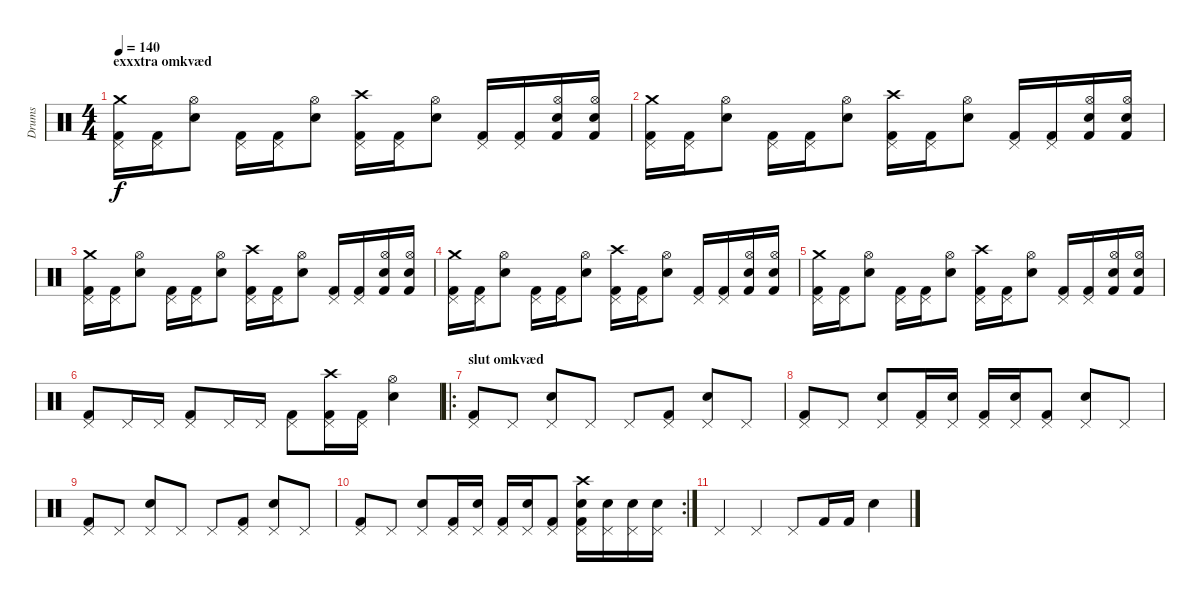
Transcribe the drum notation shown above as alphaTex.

\track ("Drums" "Drums") {instrument percussion}
\staff {score}
\articulation defaults
\ts (4 4)
\section ("" "exxxtra omkvæd")
\tempo 140
\clef neutral
\ks c
("Crash medium (hit)" "Pedal Hi-Hat (hit)" "Kick (hit) 2").16{dy f} ("Pedal Hi-Hat (hit)" "Kick (hit) 2").16 ("Hi-Hat (open)" "Snare (hit) 2").8 ("Pedal Hi-Hat (hit)" "Kick (hit) 2").16 ("Pedal Hi-Hat (hit)" "Kick (hit) 2").16 ("Hi-Hat (open)" "Snare (hit) 2").8 ("Crash high (hit)" "Pedal Hi-Hat (hit)" "Kick (hit) 2").16 ("Pedal Hi-Hat (hit)" "Kick (hit) 2").16 ("Hi-Hat (open)" "Snare (hit) 2").8 ("Pedal Hi-Hat (hit)" "Kick (hit) 2").16 ("Pedal Hi-Hat (hit)" "Kick (hit) 2").16 ("Hi-Hat (open)" "Snare (hit) 2" "Kick (hit) 2").16 ("Hi-Hat (open)" "Snare (hit) 2" "Kick (hit) 2").16 |
("Crash medium (hit)" "Pedal Hi-Hat (hit)" "Kick (hit) 2").16 ("Pedal Hi-Hat (hit)" "Kick (hit) 2").16 ("Hi-Hat (open)" "Snare (hit) 2").8 ("Pedal Hi-Hat (hit)" "Kick (hit) 2").16 ("Pedal Hi-Hat (hit)" "Kick (hit) 2").16 ("Hi-Hat (open)" "Snare (hit) 2").8 ("Crash high (hit)" "Pedal Hi-Hat (hit)" "Kick (hit) 2").16 ("Pedal Hi-Hat (hit)" "Kick (hit) 2").16 ("Hi-Hat (open)" "Snare (hit) 2").8 ("Pedal Hi-Hat (hit)" "Kick (hit) 2").16 ("Pedal Hi-Hat (hit)" "Kick (hit) 2").16 ("Hi-Hat (open)" "Snare (hit) 2" "Kick (hit) 2").16 ("Hi-Hat (open)" "Snare (hit) 2" "Kick (hit) 2").16 |
("Crash medium (hit)" "Pedal Hi-Hat (hit)" "Kick (hit) 2").16 ("Pedal Hi-Hat (hit)" "Kick (hit) 2").16 ("Hi-Hat (open)" "Snare (hit) 2").8 ("Pedal Hi-Hat (hit)" "Kick (hit) 2").16 ("Pedal Hi-Hat (hit)" "Kick (hit) 2").16 ("Hi-Hat (open)" "Snare (hit) 2").8 ("Crash high (hit)" "Pedal Hi-Hat (hit)" "Kick (hit) 2").16 ("Pedal Hi-Hat (hit)" "Kick (hit) 2").16 ("Hi-Hat (open)" "Snare (hit) 2").8 ("Pedal Hi-Hat (hit)" "Kick (hit) 2").16 ("Pedal Hi-Hat (hit)" "Kick (hit) 2").16 ("Hi-Hat (open)" "Snare (hit) 2" "Kick (hit) 2").16 ("Hi-Hat (open)" "Snare (hit) 2" "Kick (hit) 2").16 |
("Crash medium (hit)" "Pedal Hi-Hat (hit)" "Kick (hit) 2").16 ("Pedal Hi-Hat (hit)" "Kick (hit) 2").16 ("Hi-Hat (open)" "Snare (hit) 2").8 ("Pedal Hi-Hat (hit)" "Kick (hit) 2").16 ("Pedal Hi-Hat (hit)" "Kick (hit) 2").16 ("Hi-Hat (open)" "Snare (hit) 2").8 ("Crash high (hit)" "Pedal Hi-Hat (hit)" "Kick (hit) 2").16 ("Pedal Hi-Hat (hit)" "Kick (hit) 2").16 ("Hi-Hat (open)" "Snare (hit) 2").8 ("Pedal Hi-Hat (hit)" "Kick (hit) 2").16 ("Pedal Hi-Hat (hit)" "Kick (hit) 2").16 ("Hi-Hat (open)" "Snare (hit) 2" "Kick (hit) 2").16 ("Hi-Hat (open)" "Snare (hit) 2" "Kick (hit) 2").16 |
("Crash medium (hit)" "Pedal Hi-Hat (hit)" "Kick (hit) 2").16 ("Pedal Hi-Hat (hit)" "Kick (hit) 2").16 ("Hi-Hat (open)" "Snare (hit) 2").8 ("Pedal Hi-Hat (hit)" "Kick (hit) 2").16 ("Pedal Hi-Hat (hit)" "Kick (hit) 2").16 ("Hi-Hat (open)" "Snare (hit) 2").8 ("Crash high (hit)" "Pedal Hi-Hat (hit)" "Kick (hit) 2").16 ("Pedal Hi-Hat (hit)" "Kick (hit) 2").16 ("Hi-Hat (open)" "Snare (hit) 2").8 ("Pedal Hi-Hat (hit)" "Kick (hit) 2").16 ("Pedal Hi-Hat (hit)" "Kick (hit) 2").16 ("Hi-Hat (open)" "Snare (hit) 2" "Kick (hit) 2").16 ("Hi-Hat (open)" "Snare (hit) 2" "Kick (hit) 2").16 |
("Pedal Hi-Hat (hit)" "Kick (hit) 2").8 "Pedal Hi-Hat (hit)".16 "Pedal Hi-Hat (hit)".16 ("Pedal Hi-Hat (hit)" "Kick (hit) 2").8 "Pedal Hi-Hat (hit)".16 "Pedal Hi-Hat (hit)".16 ("Pedal Hi-Hat (hit)" "Kick (hit) 2").8 ("Crash high (hit)" "Pedal Hi-Hat (hit)" "Kick (hit) 2").16 ("Pedal Hi-Hat (hit)" "Kick (hit) 2").16 ("Hi-Hat (open)" "Snare (hit) 2").4 |
\ro
\section ("" "slut omkvæd")
("Pedal Hi-Hat (hit)" "Kick (hit) 2").8 "Pedal Hi-Hat (hit)".8 ("Pedal Hi-Hat (hit)" "Snare (hit) 2").8 "Pedal Hi-Hat (hit)".8 "Pedal Hi-Hat (hit)".8 ("Pedal Hi-Hat (hit)" "Kick (hit) 2").8 ("Pedal Hi-Hat (hit)" "Snare (hit) 2").8 "Pedal Hi-Hat (hit)".8 |
("Pedal Hi-Hat (hit)" "Kick (hit) 2").8 "Pedal Hi-Hat (hit)".8 ("Pedal Hi-Hat (hit)" "Snare (hit) 2").8 ("Pedal Hi-Hat (hit)" "Kick (hit) 2").16 ("Pedal Hi-Hat (hit)" "Snare (hit) 2").16 ("Pedal Hi-Hat (hit)" "Kick (hit) 2").16 ("Pedal Hi-Hat (hit)" "Snare (hit) 2").16 ("Pedal Hi-Hat (hit)" "Kick (hit) 2").8 ("Pedal Hi-Hat (hit)" "Snare (hit) 2").8 "Pedal Hi-Hat (hit)".8 |
("Pedal Hi-Hat (hit)" "Kick (hit) 2").8 "Pedal Hi-Hat (hit)".8 ("Pedal Hi-Hat (hit)" "Snare (hit) 2").8 "Pedal Hi-Hat (hit)".8 "Pedal Hi-Hat (hit)".8 ("Pedal Hi-Hat (hit)" "Kick (hit) 2").8 ("Pedal Hi-Hat (hit)" "Snare (hit) 2").8 "Pedal Hi-Hat (hit)".8 |
\rc 2
("Pedal Hi-Hat (hit)" "Kick (hit) 2").8 "Pedal Hi-Hat (hit)".8 ("Pedal Hi-Hat (hit)" "Snare (hit) 2").8 ("Pedal Hi-Hat (hit)" "Kick (hit) 2").16 ("Pedal Hi-Hat (hit)" "Snare (hit) 2").16 ("Pedal Hi-Hat (hit)" "Kick (hit) 2").16 ("Pedal Hi-Hat (hit)" "Snare (hit) 2").16 ("Pedal Hi-Hat (hit)" "Kick (hit) 2").8 ("Crash high (hit)" "Kick (hit) 2" "Pedal Hi-Hat (hit)" "Snare (hit) 2").16 ("Pedal Hi-Hat (hit)" "Snare (hit) 2").16 ("Pedal Hi-Hat (hit)" "Snare (hit) 2").16 ("Pedal Hi-Hat (hit)" "Snare (hit) 2").16 |
"Pedal Hi-Hat (hit)".4 "Pedal Hi-Hat (hit)".4 "Pedal Hi-Hat (hit)".8 "Kick (hit) 2".16 "Kick (hit) 2".16 "Snare (hit) 2".4
